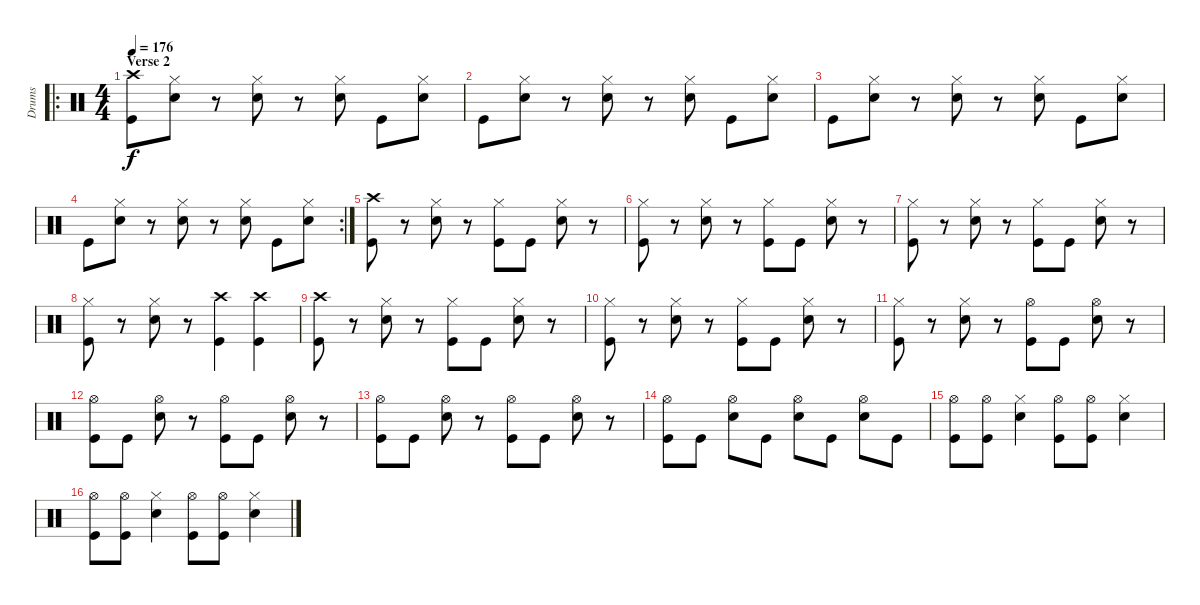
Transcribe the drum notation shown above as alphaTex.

\track ("Drums" "Drums") {instrument percussion}
\staff {score}
\articulation defaults
\ro
\ts (4 4)
\section ("" "Verse 2")
\tempo 176
\clef neutral
\ks c
("Crash high (hit)" "Kick (hit)").8{dy f} ("Hi-Hat (closed)" "Snare (hit) 2").8 r.8 ("Hi-Hat (closed)" "Snare (hit) 2").8 r.8 ("Hi-Hat (closed)" "Snare (hit) 2").8 "Kick (hit)".8 ("Hi-Hat (closed)" "Snare (hit) 2").8 |
"Kick (hit)".8 ("Hi-Hat (closed)" "Snare (hit) 2").8 r.8 ("Hi-Hat (closed)" "Snare (hit) 2").8 r.8 ("Hi-Hat (closed)" "Snare (hit) 2").8 "Kick (hit)".8 ("Hi-Hat (closed)" "Snare (hit) 2").8 |
"Kick (hit)".8 ("Hi-Hat (closed)" "Snare (hit) 2").8 r.8 ("Hi-Hat (closed)" "Snare (hit) 2").8 r.8 ("Hi-Hat (closed)" "Snare (hit) 2").8 "Kick (hit)".8 ("Hi-Hat (closed)" "Snare (hit) 2").8 |
\rc 2 "Kick (hit)".8
("Hi-Hat (closed)" "Snare (hit) 2").8 r.8 ("Hi-Hat (closed)" "Snare (hit) 2").8 r.8 ("Hi-Hat (closed)" "Snare (hit) 2").8 "Kick (hit)".8 ("Hi-Hat (closed)" "Snare (hit) 2").8 |
("Crash high (hit)" "Kick (hit)").8 r.8 ("Hi-Hat (closed)" "Snare (hit) 2").8 r.8 ("Hi-Hat (closed)" "Kick (hit)").8 "Kick (hit)".8 ("Hi-Hat (closed)" "Snare (hit) 2").8 r.8 |
("Hi-Hat (closed)" "Kick (hit)").8 r.8 ("Hi-Hat (closed)" "Snare (hit) 2").8 r.8 ("Hi-Hat (closed)" "Kick (hit)").8 "Kick (hit)".8 ("Hi-Hat (closed)" "Snare (hit) 2").8 r.8 |
("Hi-Hat (closed)" "Kick (hit)").8 r.8 ("Hi-Hat (closed)" "Snare (hit) 2").8 r.8 ("Hi-Hat (closed)" "Kick (hit)").8 "Kick (hit)".8 ("Hi-Hat (closed)" "Snare (hit) 2").8 r.8 |
("Hi-Hat (closed)" "Kick (hit)").8 r.8 ("Hi-Hat (closed)" "Snare (hit) 2").8 r.8 ("Crash high (hit)" "Kick (hit)").4 ("Crash high (hit)" "Kick (hit)").4 |
("Crash high (hit)" "Kick (hit)").8 r.8 ("Hi-Hat (closed)" "Snare (hit) 2").8 r.8 ("Hi-Hat (closed)" "Kick (hit)").8 "Kick (hit)".8 ("Hi-Hat (closed)" "Snare (hit) 2").8 r.8 |
("Hi-Hat (closed)" "Kick (hit)").8 r.8 ("Hi-Hat (closed)" "Snare (hit) 2").8 r.8 ("Hi-Hat (closed)" "Kick (hit)").8 "Kick (hit)".8 ("Hi-Hat (closed)" "Snare (hit) 2").8 r.8 |
("Hi-Hat (closed)" "Kick (hit)").8 r.8 ("Hi-Hat (closed)" "Snare (hit) 2").8 r.8 ("Hi-Hat (open)" "Kick (hit)").8 "Kick (hit)".8 ("Hi-Hat (open)" "Snare (hit) 2").8 r.8 |
("Hi-Hat (open)" "Kick (hit)").8 "Kick (hit)".8 ("Hi-Hat (open)" "Snare (hit) 2").8 r.8 ("Hi-Hat (open)" "Kick (hit)").8 "Kick (hit)".8 ("Hi-Hat (open)" "Snare (hit) 2").8 r.8 |
("Hi-Hat (open)" "Kick (hit)").8 "Kick (hit)".8 ("Hi-Hat (open)" "Snare (hit) 2").8 r.8 ("Hi-Hat (open)" "Kick (hit)").8 "Kick (hit)".8 ("Hi-Hat (open)" "Snare (hit) 2").8 r.8 |
("Hi-Hat (open)" "Kick (hit)").8 "Kick (hit)".8 ("Hi-Hat (open)" "Snare (hit) 2").8 "Kick (hit)".8 ("Hi-Hat (open)" "Snare (hit) 2").8 "Kick (hit)".8 ("Hi-Hat (open)" "Snare (hit) 2").8 "Kick (hit)".8 |
("Hi-Hat (open)" "Kick (hit)").8 ("Hi-Hat (open)" "Kick (hit)").8 ("Hi-Hat (closed)" "Snare (hit) 2").4 ("Hi-Hat (open)" "Kick (hit)").8 ("Hi-Hat (open)" "Kick (hit)").8 ("Hi-Hat (closed)" "Snare (hit) 2").4 |
("Hi-Hat (open)" "Kick (hit)").8 ("Hi-Hat (open)" "Kick (hit)").8 ("Hi-Hat (closed)" "Snare (hit) 2").4 ("Hi-Hat (open)" "Kick (hit)").8 ("Hi-Hat (open)" "Kick (hit)").8 ("Hi-Hat (closed)" "Snare (hit) 2").4
